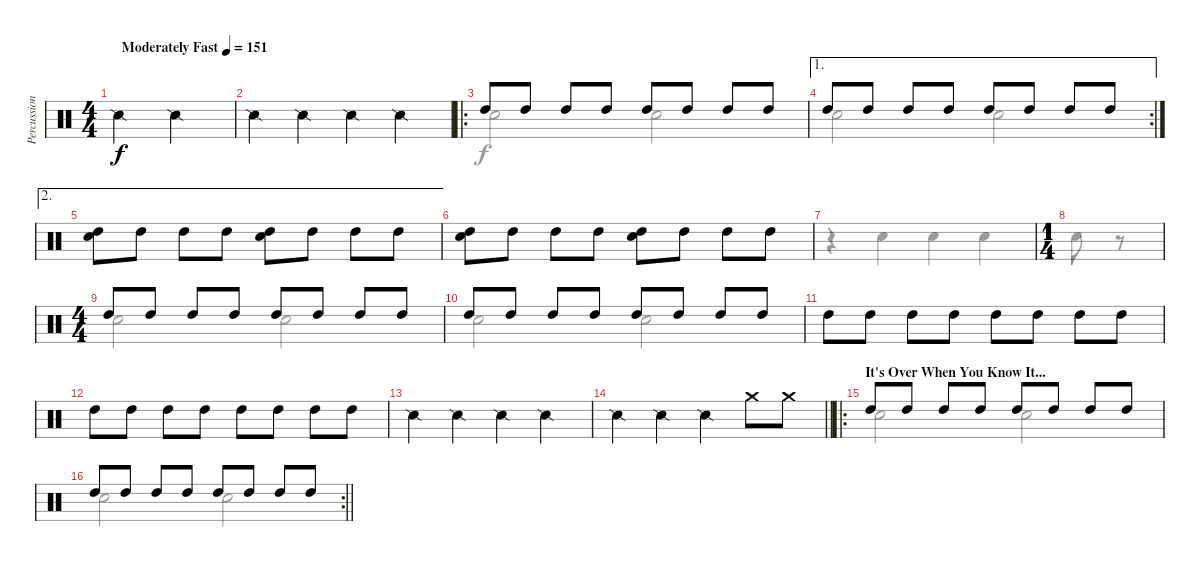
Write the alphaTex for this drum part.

\track ("Percussion" "Percussion") {instrument percussion}
\staff {score}
\articulation defaults
\voice
\ts (4 4)
\tempo (151 "Moderately Fast")
\clef neutral
\ks c "Snare (side stick) 2".2{dy f} "Snare (side stick) 2".2
|
"Snare (side stick) 2".4 "Snare (side stick) 2".4 "Snare (side stick) 2".4 "Snare (side stick) 2".4 |
\ro "High Tom (hit)".8 "High Tom (hit)".8 "High Tom (hit)".8 "High Tom (hit)".8 "High Tom (hit)".8 "High Tom (hit)".8 "High Tom (hit)".8 "High Tom (hit)".8
|
\ae 1
\rc 2 "High Tom (hit)".8 "High Tom (hit)".8 "High Tom (hit)".8 "High Tom (hit)".8 "High Tom (hit)".8 "High Tom (hit)".8 "High Tom (hit)".8 "High Tom (hit)".8
|
\ae 2
("Snare (hit) 2" "High Tom (hit)").8 "High Tom (hit)".8 "High Tom (hit)".8 "High Tom (hit)".8 ("Snare (hit) 2" "High Tom (hit)").8 "High Tom (hit)".8 "High Tom (hit)".8 "High Tom (hit)".8 |
("Snare (hit) 2" "High Tom (hit)").8 "High Tom (hit)".8 "High Tom (hit)".8 "High Tom (hit)".8 ("Snare (hit) 2" "High Tom (hit)").8 "High Tom (hit)".8 "High Tom (hit)".8 "High Tom (hit)".8 |
|
\ts (1 4)
|
\ts (4 4)
"High Tom (hit)".8 "High Tom (hit)".8 "High Tom (hit)".8 "High Tom (hit)".8 "High Tom (hit)".8 "High Tom (hit)".8 "High Tom (hit)".8 "High Tom (hit)".8 |
"High Tom (hit)".8 "High Tom (hit)".8 "High Tom (hit)".8 "High Tom (hit)".8 "High Tom (hit)".8 "High Tom (hit)".8 "High Tom (hit)".8 "High Tom (hit)".8 |
"High Tom (hit)".8 "High Tom (hit)".8 "High Tom (hit)".8 "High Tom (hit)".8 "High Tom (hit)".8 "High Tom (hit)".8 "High Tom (hit)".8 "High Tom (hit)".8 |
"High Tom (hit)".8 "High Tom (hit)".8 "High Tom (hit)".8 "High Tom (hit)".8 "High Tom (hit)".8 "High Tom (hit)".8 "High Tom (hit)".8 "High Tom (hit)".8 |
"Snare (side stick) 2".4 "Snare (side stick) 2".4 "Snare (side stick) 2".4 "Snare (side stick) 2".4 |
\barLineRight lightlight "Snare (side stick) 2".4 "Snare (side stick) 2".4 "Snare (side stick) 2".4 "Crash medium (hit)".8 "Crash medium (hit)".8
|
\ro
\section ("" "It's Over When You Know It...")
"High Tom (hit)".8 "High Tom (hit)".8 "High Tom (hit)".8 "High Tom (hit)".8 "High Tom (hit)".8 "High Tom (hit)".8 "High Tom (hit)".8 "High Tom (hit)".8 |
\rc 2
\barLineRight lightlight "High Tom (hit)".8 "High Tom (hit)".8 "High Tom (hit)".8 "High Tom (hit)".8 "High Tom (hit)".8 "High Tom (hit)".8 "High Tom (hit)".8 "High Tom (hit)".8
\voice
\clef neutral
\ottava regular
\simile none
\ks c
|
|
"Snare (hit) 2".2 "Snare (hit) 2".2 |
"Snare (hit) 2".2 "Snare (hit) 2".2 |
|
|
r.4 "Snare (hit) 2".4 "Snare (hit) 2".4 "Snare (hit) 2".4 |
"Snare (hit) 2".8 r.8 |
"Snare (hit) 2".2 "Snare (hit) 2".2 |
"Snare (hit) 2".2 "Snare (hit) 2".2 |
|
|
|
\barLineRight lightlight
|
"Snare (hit) 2".2 "Snare (hit) 2".2 |
\barLineRight lightlight "Snare (hit) 2".2 "Snare (hit) 2".2
